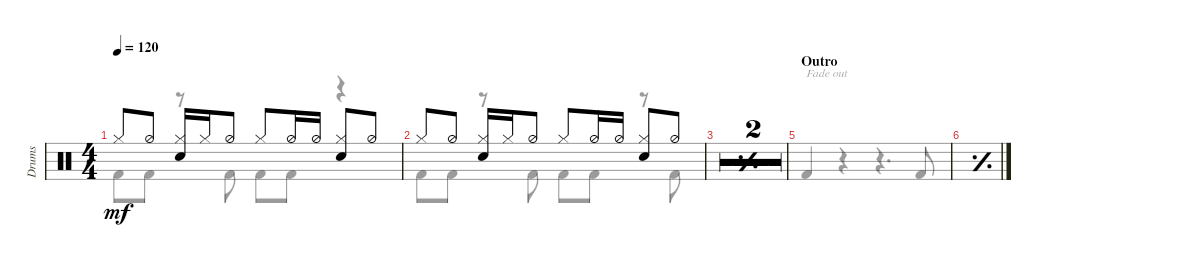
\defaultSystemsLayout 4
\bracketExtendMode groupsimilarinstruments
\otherSystemsTrackNameOrientation horizontal
\track ("Drums" "Drums") {multiBarRest instrument percussion}
\staff {score}
\articulation defaults
\voice
\ts (4 4)
\tempo 120
\clef neutral
\ks c "Hi-Hat (closed)".8{dy mf beam Up} "Hi-Hat (half)".8{beam Up}
("Hi-Hat (closed)" "Snare (hit) 2").16{beam Up} "Hi-Hat (closed)".16{beam Up} "Hi-Hat (half)".8{beam Up} "Hi-Hat (closed)".8{beam Up} "Hi-Hat (half)".16{beam Up} "Hi-Hat (half)".16{beam Up} ("Hi-Hat (closed)" "Snare (hit) 2").8{beam Up} "Hi-Hat (half)".8{beam Up} |
"Hi-Hat (closed)".8{beam Up} "Hi-Hat (half)".8{beam Up} ("Hi-Hat (closed)" "Snare (hit) 2").16{beam Up} "Hi-Hat (closed)".16{beam Up} "Hi-Hat (half)".8{beam Up} "Hi-Hat (closed)".8{beam Up} "Hi-Hat (half)".16{beam Up} "Hi-Hat (half)".16{beam Up} ("Hi-Hat (closed)" "Snare (hit) 2").8{beam Up} "Hi-Hat (half)".8{beam Up} |
\simile simple
|
\barLineRight lightlight
|
\section ("" "Outro")
\simile none
|
\simile simple
|
|
|
|
|
|
|
\simile none
|
|
\voice
\clef neutral
\ottava regular
\simile none
\ks c "Kick (hit) 2".8{dy mf beam Down} "Kick (hit) 2".8{beam Down}
r.8{beam Down} "Kick (hit) 2".8{beam Down} "Kick (hit) 2".8{beam Down} "Kick (hit) 2".8{beam Down} r.4{beam Down} |
"Kick (hit) 2".8{beam Down} "Kick (hit) 2".8{beam Down} r.8{beam Down} "Kick (hit) 2".8{beam Down} "Kick (hit) 2".8{beam Down} "Kick (hit) 2".8{beam Down} r.8{beam Down} "Kick (hit) 2".8{beam Down} |
\simile simple
|
\barLineRight lightlight
|
\simile none "Kick (hit) 2".4{txt "Fade out" beam Up}
r.4{beam Up} r.4{d beam Up} "Kick (hit) 2".8{beam Up} |
\simile simple
|
|
|
|
|
|
|
\simile none
|
|
